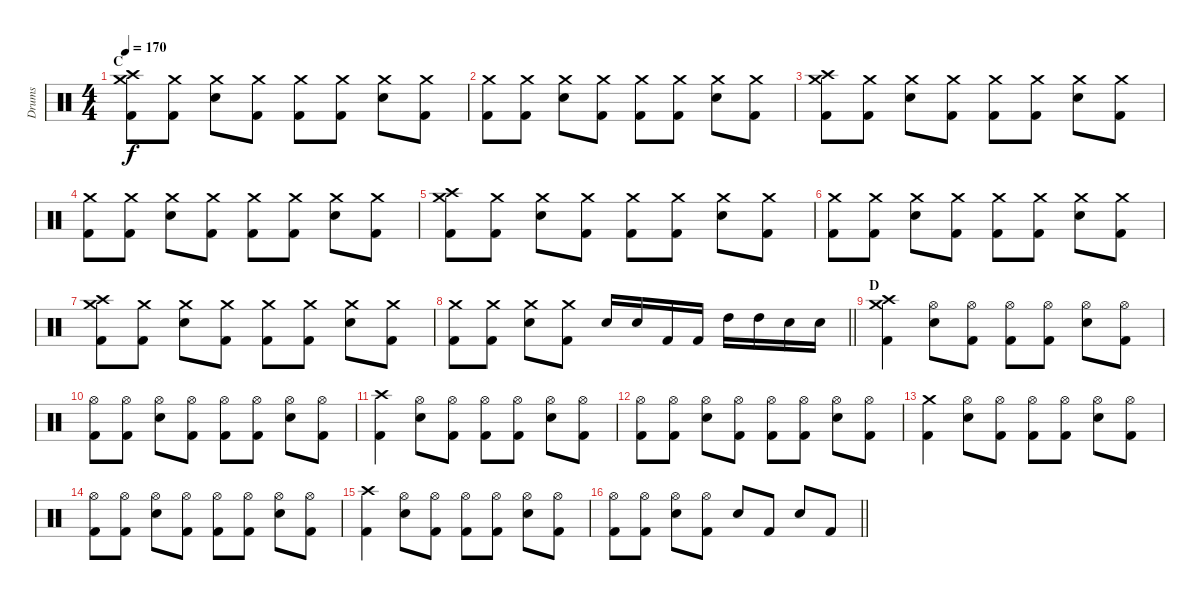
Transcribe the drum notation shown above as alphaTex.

\track ("Drums" "Drums") {instrument percussion}
\staff {score}
\articulation defaults
\ts (4 4)
\section ("" "C")
\tempo 170
\clef neutral
\ks c
("Kick (hit) 2" "Crash high (hit)" "Crash medium (hit)").8{dy f} ("Kick (hit) 2" "Crash medium (hit)").8 ("Snare (hit) 2" "Crash medium (hit)").8 ("Kick (hit) 2" "Crash medium (hit)").8 ("Kick (hit) 2" "Crash medium (hit)").8 ("Kick (hit) 2" "Crash medium (hit)").8 ("Snare (hit) 2" "Crash medium (hit)").8 ("Kick (hit) 2" "Crash medium (hit)").8 |
("Kick (hit) 2" "Crash medium (hit)").8 ("Kick (hit) 2" "Crash medium (hit)").8 ("Snare (hit) 2" "Crash medium (hit)").8 ("Kick (hit) 2" "Crash medium (hit)").8 ("Kick (hit) 2" "Crash medium (hit)").8 ("Kick (hit) 2" "Crash medium (hit)").8 ("Snare (hit) 2" "Crash medium (hit)").8 ("Kick (hit) 2" "Crash medium (hit)").8 |
("Kick (hit) 2" "Crash high (hit)" "Crash medium (hit)").8 ("Kick (hit) 2" "Crash medium (hit)").8 ("Snare (hit) 2" "Crash medium (hit)").8 ("Kick (hit) 2" "Crash medium (hit)").8 ("Kick (hit) 2" "Crash medium (hit)").8 ("Kick (hit) 2" "Crash medium (hit)").8 ("Snare (hit) 2" "Crash medium (hit)").8 ("Kick (hit) 2" "Crash medium (hit)").8 |
("Kick (hit) 2" "Crash medium (hit)").8 ("Kick (hit) 2" "Crash medium (hit)").8 ("Snare (hit) 2" "Crash medium (hit)").8 ("Kick (hit) 2" "Crash medium (hit)").8 ("Kick (hit) 2" "Crash medium (hit)").8 ("Kick (hit) 2" "Crash medium (hit)").8 ("Snare (hit) 2" "Crash medium (hit)").8 ("Kick (hit) 2" "Crash medium (hit)").8 |
("Kick (hit) 2" "Crash high (hit)" "Crash medium (hit)").8 ("Kick (hit) 2" "Crash medium (hit)").8 ("Snare (hit) 2" "Crash medium (hit)").8 ("Kick (hit) 2" "Crash medium (hit)").8 ("Kick (hit) 2" "Crash medium (hit)").8 ("Kick (hit) 2" "Crash medium (hit)").8 ("Snare (hit) 2" "Crash medium (hit)").8 ("Kick (hit) 2" "Crash medium (hit)").8 |
("Kick (hit) 2" "Crash medium (hit)").8 ("Kick (hit) 2" "Crash medium (hit)").8 ("Snare (hit) 2" "Crash medium (hit)").8 ("Kick (hit) 2" "Crash medium (hit)").8 ("Kick (hit) 2" "Crash medium (hit)").8 ("Kick (hit) 2" "Crash medium (hit)").8 ("Snare (hit) 2" "Crash medium (hit)").8 ("Kick (hit) 2" "Crash medium (hit)").8 |
("Kick (hit) 2" "Crash high (hit)" "Crash medium (hit)").8 ("Kick (hit) 2" "Crash medium (hit)").8 ("Snare (hit) 2" "Crash medium (hit)").8 ("Kick (hit) 2" "Crash medium (hit)").8 ("Kick (hit) 2" "Crash medium (hit)").8 ("Kick (hit) 2" "Crash medium (hit)").8 ("Snare (hit) 2" "Crash medium (hit)").8 ("Kick (hit) 2" "Crash medium (hit)").8 |
\barLineRight lightlight
("Kick (hit) 2" "Crash medium (hit)").8 ("Kick (hit) 2" "Crash medium (hit)").8 ("Snare (hit) 2" "Crash medium (hit)").8 ("Kick (hit) 2" "Crash medium (hit)").8 "Snare (hit) 2".16 "Snare (hit) 2".16 "Kick (hit) 2".16 "Kick (hit) 2".16 "High Tom (hit)".16 "High Tom (hit)".16 "Snare (hit) 2".16 "Snare (hit) 2".16 |
\section ("" "D")
("Kick (hit) 2" "Crash high (hit)" "Crash medium (hit)").4 ("Snare (hit) 2" "Hi-Hat (open)").8 ("Kick (hit) 2" "Hi-Hat (open)").8 ("Kick (hit) 2" "Hi-Hat (open)").8 ("Kick (hit) 2" "Hi-Hat (open)").8 ("Snare (hit) 2" "Hi-Hat (open)").8 ("Kick (hit) 2" "Hi-Hat (open)").8 |
("Kick (hit) 2" "Hi-Hat (open)").8 ("Kick (hit) 2" "Hi-Hat (open)").8 ("Snare (hit) 2" "Hi-Hat (open)").8 ("Kick (hit) 2" "Hi-Hat (open)").8 ("Kick (hit) 2" "Hi-Hat (open)").8 ("Kick (hit) 2" "Hi-Hat (open)").8 ("Snare (hit) 2" "Hi-Hat (open)").8 ("Kick (hit) 2" "Hi-Hat (open)").8 |
("Kick (hit) 2" "Crash high (hit)").4 ("Snare (hit) 2" "Hi-Hat (open)").8 ("Kick (hit) 2" "Hi-Hat (open)").8 ("Kick (hit) 2" "Hi-Hat (open)").8 ("Kick (hit) 2" "Hi-Hat (open)").8 ("Snare (hit) 2" "Hi-Hat (open)").8 ("Kick (hit) 2" "Hi-Hat (open)").8 |
("Kick (hit) 2" "Hi-Hat (open)").8 ("Kick (hit) 2" "Hi-Hat (open)").8 ("Snare (hit) 2" "Hi-Hat (open)").8 ("Kick (hit) 2" "Hi-Hat (open)").8 ("Kick (hit) 2" "Hi-Hat (open)").8 ("Kick (hit) 2" "Hi-Hat (open)").8 ("Snare (hit) 2" "Hi-Hat (open)").8 ("Kick (hit) 2" "Hi-Hat (open)").8 |
("Kick (hit) 2" "Crash medium (hit)").4 ("Snare (hit) 2" "Hi-Hat (open)").8 ("Kick (hit) 2" "Hi-Hat (open)").8 ("Kick (hit) 2" "Hi-Hat (open)").8 ("Kick (hit) 2" "Hi-Hat (open)").8 ("Snare (hit) 2" "Hi-Hat (open)").8 ("Kick (hit) 2" "Hi-Hat (open)").8 |
("Kick (hit) 2" "Hi-Hat (open)").8 ("Kick (hit) 2" "Hi-Hat (open)").8 ("Snare (hit) 2" "Hi-Hat (open)").8 ("Kick (hit) 2" "Hi-Hat (open)").8 ("Kick (hit) 2" "Hi-Hat (open)").8 ("Kick (hit) 2" "Hi-Hat (open)").8 ("Snare (hit) 2" "Hi-Hat (open)").8 ("Kick (hit) 2" "Hi-Hat (open)").8 |
("Kick (hit) 2" "Crash high (hit)").4 ("Snare (hit) 2" "Hi-Hat (open)").8 ("Kick (hit) 2" "Hi-Hat (open)").8 ("Kick (hit) 2" "Hi-Hat (open)").8 ("Kick (hit) 2" "Hi-Hat (open)").8 ("Snare (hit) 2" "Hi-Hat (open)").8 ("Kick (hit) 2" "Hi-Hat (open)").8 |
\barLineRight lightlight
("Kick (hit) 2" "Hi-Hat (open)").8 ("Kick (hit) 2" "Hi-Hat (open)").8 ("Snare (hit) 2" "Hi-Hat (open)").8 ("Kick (hit) 2" "Hi-Hat (open)").8 "Snare (hit) 2".8 "Kick (hit) 2".8 "Snare (hit) 2".8 "Kick (hit) 2".8
